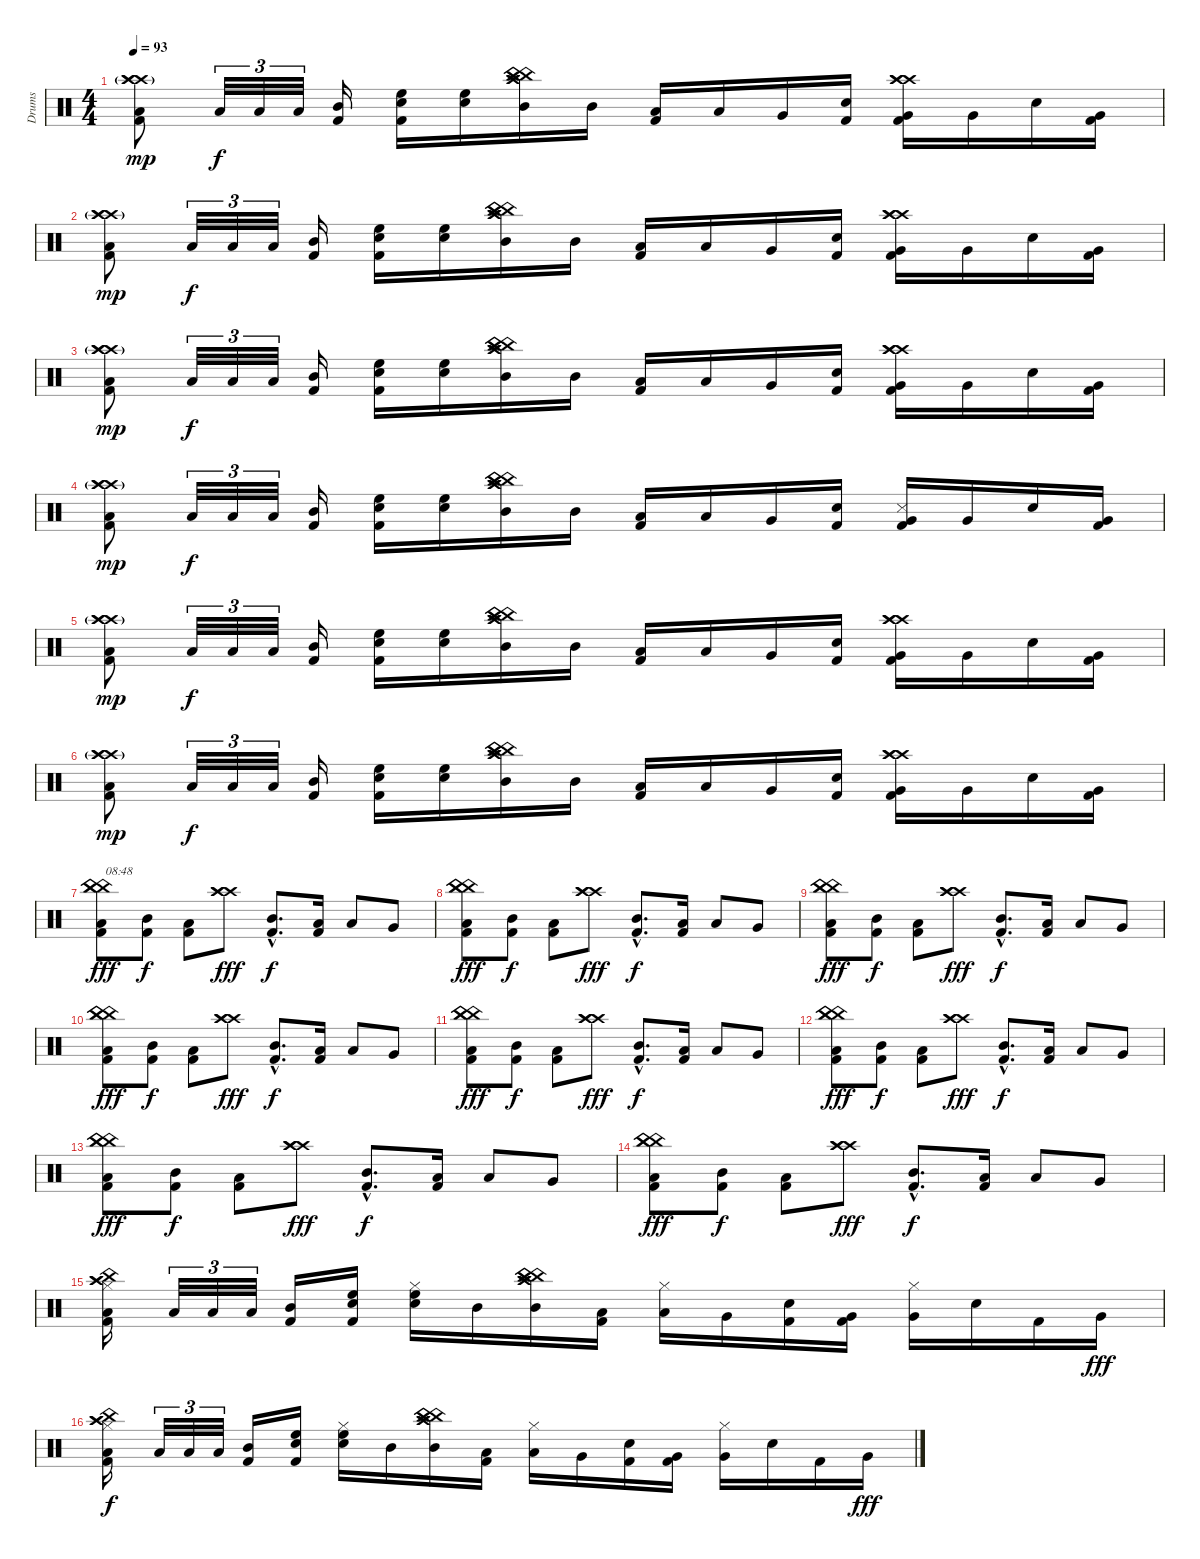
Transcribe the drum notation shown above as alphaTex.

\track ("Drums" "Drums") {instrument percussion}
\staff {score}
\articulation defaults
\ts (4 4)
\tempo 93
\clef neutral
\ks c
("Crash high (hit)"{g} "Crash high (hit)"{g} "Crash high (hit)"{g} "Low Floor Tom (hit)" "Kick (hit) 2").8{dy mp} "Low Floor Tom (hit)".32{tu (3 2) dy f} "Low Floor Tom (hit)".32{tu (3 2)} "Low Floor Tom (hit)".32{tu (3 2)} ("Mid Tom (hit)" "Kick (hit) 2").16 ("High Floor Tom (hit)" "Snare (hit) 2" "Kick (hit) 2").16 ("High Floor Tom (hit)" "Snare (hit) 2").16 ("China (hit)" "Mid Tom (hit)" "China (hit)" "China (hit)" "Crash high (hit)" "Crash high (hit)").16 "Mid Tom (hit)".16 ("Low Tom (hit)" "Kick (hit) 2").16 "Low Floor Tom (hit)".16 "Very Low Tom (hit)".16 ("Snare (hit) 2" "Kick (hit) 2").16 ("Crash high (hit)" "Crash high (hit)" "Crash high (hit)" "Very Low Tom (hit)" "Kick (hit) 2").16 "Very Low Tom (hit)".16 "Snare (hit) 2".16 ("Very Low Tom (hit)" "Kick (hit) 2").16 |
("Crash high (hit)"{g} "Crash high (hit)"{g} "Crash high (hit)"{g} "Low Floor Tom (hit)" "Kick (hit) 2").8{dy mp} "Low Floor Tom (hit)".32{tu (3 2) dy f} "Low Floor Tom (hit)".32{tu (3 2)} "Low Floor Tom (hit)".32{tu (3 2)} ("Mid Tom (hit)" "Kick (hit) 2").16 ("High Floor Tom (hit)" "Snare (hit) 2" "Kick (hit) 2").16 ("High Floor Tom (hit)" "Snare (hit) 2").16 ("China (hit)" "Mid Tom (hit)" "China (hit)" "China (hit)" "Crash high (hit)" "Crash high (hit)").16 "Mid Tom (hit)".16 ("Low Tom (hit)" "Kick (hit) 2").16 "Low Floor Tom (hit)".16 "Very Low Tom (hit)".16 ("Snare (hit) 2" "Kick (hit) 2").16 ("Crash high (hit)" "Crash high (hit)" "Crash high (hit)" "Very Low Tom (hit)" "Kick (hit) 2").16 "Very Low Tom (hit)".16 "Snare (hit) 2".16 ("Very Low Tom (hit)" "Kick (hit) 2").16 |
("Crash high (hit)"{g} "Crash high (hit)"{g} "Crash high (hit)"{g} "Low Floor Tom (hit)" "Kick (hit) 2").8{dy mp} "Low Floor Tom (hit)".32{tu (3 2) dy f} "Low Floor Tom (hit)".32{tu (3 2)} "Low Floor Tom (hit)".32{tu (3 2)} ("Mid Tom (hit)" "Kick (hit) 2").16 ("High Floor Tom (hit)" "Snare (hit) 2" "Kick (hit) 2").16 ("High Floor Tom (hit)" "Snare (hit) 2").16 ("China (hit)" "Mid Tom (hit)" "China (hit)" "China (hit)" "Crash high (hit)" "Crash high (hit)").16 "Mid Tom (hit)".16 ("Low Tom (hit)" "Kick (hit) 2").16 "Low Floor Tom (hit)".16 "Very Low Tom (hit)".16 ("Snare (hit) 2" "Kick (hit) 2").16 ("Crash high (hit)" "Crash high (hit)" "Crash high (hit)" "Very Low Tom (hit)" "Kick (hit) 2").16 "Very Low Tom (hit)".16 "Snare (hit) 2".16 ("Very Low Tom (hit)" "Kick (hit) 2").16 |
("Crash high (hit)"{g} "Crash high (hit)"{g} "Crash high (hit)"{g} "Low Floor Tom (hit)" "Kick (hit) 2").8{dy mp} "Low Floor Tom (hit)".32{tu (3 2) dy f} "Low Floor Tom (hit)".32{tu (3 2)} "Low Floor Tom (hit)".32{tu (3 2)} ("Mid Tom (hit)" "Kick (hit) 2").16 ("High Floor Tom (hit)" "Snare (hit) 2" "Kick (hit) 2").16 ("High Floor Tom (hit)" "Snare (hit) 2").16 ("China (hit)" "Mid Tom (hit)" "China (hit)" "China (hit)" "Crash high (hit)" "Crash high (hit)").16 "Mid Tom (hit)".16 ("Low Tom (hit)" "Kick (hit) 2").16 "Low Floor Tom (hit)".16 "Very Low Tom (hit)".16 ("Snare (hit) 2" "Kick (hit) 2").16 ("Snare (side stick) 3" "Very Low Tom (hit)" "Kick (hit) 2").16 "Very Low Tom (hit)".16 "Snare (hit) 2".16 ("Very Low Tom (hit)" "Kick (hit) 2").16 |
("Crash high (hit)"{g} "Crash high (hit)"{g} "Crash high (hit)"{g} "Low Floor Tom (hit)" "Kick (hit) 2").8{dy mp} "Low Floor Tom (hit)".32{tu (3 2) dy f} "Low Floor Tom (hit)".32{tu (3 2)} "Low Floor Tom (hit)".32{tu (3 2)} ("Mid Tom (hit)" "Kick (hit) 2").16 ("High Floor Tom (hit)" "Snare (hit) 2" "Kick (hit) 2").16 ("High Floor Tom (hit)" "Snare (hit) 2").16 ("China (hit)" "Mid Tom (hit)" "China (hit)" "China (hit)" "Crash high (hit)" "Crash high (hit)").16 "Mid Tom (hit)".16 ("Low Tom (hit)" "Kick (hit) 2").16 "Low Floor Tom (hit)".16 "Very Low Tom (hit)".16 ("Snare (hit) 2" "Kick (hit) 2").16 ("Crash high (hit)" "Crash high (hit)" "Crash high (hit)" "Very Low Tom (hit)" "Kick (hit) 2").16 "Very Low Tom (hit)".16 "Snare (hit) 2".16 ("Very Low Tom (hit)" "Kick (hit) 2").16 |
("Crash high (hit)"{g} "Crash high (hit)"{g} "Crash high (hit)"{g} "Low Floor Tom (hit)" "Kick (hit) 2").8{dy mp} "Low Floor Tom (hit)".32{tu (3 2) dy f} "Low Floor Tom (hit)".32{tu (3 2)} "Low Floor Tom (hit)".32{tu (3 2)} ("Mid Tom (hit)" "Kick (hit) 2").16 ("High Floor Tom (hit)" "Snare (hit) 2" "Kick (hit) 2").16 ("High Floor Tom (hit)" "Snare (hit) 2").16 ("China (hit)" "Mid Tom (hit)" "China (hit)" "China (hit)" "Crash high (hit)" "Crash high (hit)").16 "Mid Tom (hit)".16 ("Low Tom (hit)" "Kick (hit) 2").16 "Low Floor Tom (hit)".16 "Very Low Tom (hit)".16 ("Snare (hit) 2" "Kick (hit) 2").16 ("Crash high (hit)" "Crash high (hit)" "Crash high (hit)" "Very Low Tom (hit)" "Kick (hit) 2").16 "Very Low Tom (hit)".16 "Snare (hit) 2".16 ("Very Low Tom (hit)" "Kick (hit) 2").16 |
("China (hit)" "China (hit)" "China (hit)" "Low Floor Tom (hit)" "Kick (hit) 2").8{txt "08:48" dy fff} ("Mid Tom (hit)" "Kick (hit) 2").8{dy f} ("Low Tom (hit)" "Kick (hit) 2").8 ("Crash high (hit)" "Crash high (hit)" "Crash high (hit)").8{dy fff} ("Mid Tom (hit)"{hac} "Kick (hit) 2"{hac}).8{d dy f} ("Low Tom (hit)" "Kick (hit) 2").16 "Low Floor Tom (hit)".8 "Very Low Tom (hit)".8 |
("China (hit)" "China (hit)" "China (hit)" "Low Floor Tom (hit)" "Kick (hit) 2").8{dy fff} ("Mid Tom (hit)" "Kick (hit) 2").8{dy f} ("Low Tom (hit)" "Kick (hit) 2").8 ("Crash high (hit)" "Crash high (hit)" "Crash high (hit)").8{dy fff} ("Mid Tom (hit)"{hac} "Kick (hit) 2"{hac}).8{d dy f} ("Low Tom (hit)" "Kick (hit) 2").16 "Low Floor Tom (hit)".8 "Very Low Tom (hit)".8 |
("China (hit)" "China (hit)" "China (hit)" "Low Floor Tom (hit)" "Kick (hit) 2").8{dy fff} ("Mid Tom (hit)" "Kick (hit) 2").8{dy f} ("Low Tom (hit)" "Kick (hit) 2").8 ("Crash high (hit)" "Crash high (hit)" "Crash high (hit)").8{dy fff} ("Mid Tom (hit)"{hac} "Kick (hit) 2"{hac}).8{d dy f} ("Low Tom (hit)" "Kick (hit) 2").16 "Low Floor Tom (hit)".8 "Very Low Tom (hit)".8 |
("China (hit)" "China (hit)" "China (hit)" "Low Floor Tom (hit)" "Kick (hit) 2").8{dy fff} ("Mid Tom (hit)" "Kick (hit) 2").8{dy f} ("Low Tom (hit)" "Kick (hit) 2").8 ("Crash high (hit)" "Crash high (hit)" "Crash high (hit)").8{dy fff} ("Mid Tom (hit)"{hac} "Kick (hit) 2"{hac}).8{d dy f} ("Low Tom (hit)" "Kick (hit) 2").16 "Low Floor Tom (hit)".8 "Very Low Tom (hit)".8 |
("China (hit)" "China (hit)" "China (hit)" "Low Floor Tom (hit)" "Kick (hit) 2").8{dy fff} ("Mid Tom (hit)" "Kick (hit) 2").8{dy f} ("Low Tom (hit)" "Kick (hit) 2").8 ("Crash high (hit)" "Crash high (hit)" "Crash high (hit)").8{dy fff} ("Mid Tom (hit)"{hac} "Kick (hit) 2"{hac}).8{d dy f} ("Low Tom (hit)" "Kick (hit) 2").16 "Low Floor Tom (hit)".8 "Very Low Tom (hit)".8 |
("China (hit)" "China (hit)" "China (hit)" "Low Floor Tom (hit)" "Kick (hit) 2").8{dy fff} ("Mid Tom (hit)" "Kick (hit) 2").8{dy f} ("Low Tom (hit)" "Kick (hit) 2").8 ("Crash high (hit)" "Crash high (hit)" "Crash high (hit)").8{dy fff} ("Mid Tom (hit)"{hac} "Kick (hit) 2"{hac}).8{d dy f} ("Low Tom (hit)" "Kick (hit) 2").16 "Low Floor Tom (hit)".8 "Very Low Tom (hit)".8 |
("China (hit)" "China (hit)" "China (hit)" "Low Floor Tom (hit)" "Kick (hit) 2").8{dy fff} ("Mid Tom (hit)" "Kick (hit) 2").8{dy f} ("Low Tom (hit)" "Kick (hit) 2").8 ("Crash high (hit)" "Crash high (hit)" "Crash high (hit)").8{dy fff} ("Mid Tom (hit)"{hac} "Kick (hit) 2"{hac}).8{d dy f} ("Low Tom (hit)" "Kick (hit) 2").16 "Low Floor Tom (hit)".8 "Very Low Tom (hit)".8 |
("China (hit)" "China (hit)" "China (hit)" "Low Floor Tom (hit)" "Kick (hit) 2").8{dy fff} ("Mid Tom (hit)" "Kick (hit) 2").8{dy f} ("Low Tom (hit)" "Kick (hit) 2").8 ("Crash high (hit)" "Crash high (hit)" "Crash high (hit)").8{dy fff} ("Mid Tom (hit)"{hac} "Kick (hit) 2"{hac}).8{d dy f} ("Low Tom (hit)" "Kick (hit) 2").16 "Low Floor Tom (hit)".8 "Very Low Tom (hit)".8 |
("Hi-Hat (closed)" "China (hit)" "Low Floor Tom (hit)" "Crash high (hit)" "Crash high (hit)" "Kick (hit) 2").16 "Low Floor Tom (hit)".32{tu (3 2)} "Low Floor Tom (hit)".32{tu (3 2)} "Low Floor Tom (hit)".32{tu (3 2)} ("Mid Tom (hit)" "Kick (hit) 2").16 ("High Floor Tom (hit)" "Snare (hit) 2" "Kick (hit) 2").16 ("High Floor Tom (hit)" "Hi-Hat (closed)" "Snare (hit) 2").16 "Mid Tom (hit)".16 ("China (hit)" "Mid Tom (hit)" "China (hit)" "China (hit)" "Crash high (hit)" "Crash high (hit)").16 ("Low Tom (hit)" "Kick (hit) 2").16 ("Hi-Hat (closed)" "Low Floor Tom (hit)").16 "Very Low Tom (hit)".16 ("Snare (hit) 2" "Kick (hit) 2").16 ("Very Low Tom (hit)" "Kick (hit) 2").16 ("Hi-Hat (closed)" "Very Low Tom (hit)").16 "Snare (hit) 2".16 "Kick (hit) 2".16 "Very Low Tom (hit)".16{dy fff} |
("Hi-Hat (closed)" "China (hit)" "Low Floor Tom (hit)" "Crash high (hit)" "Crash high (hit)" "Kick (hit) 2").16{dy f} "Low Floor Tom (hit)".32{tu (3 2)} "Low Floor Tom (hit)".32{tu (3 2)} "Low Floor Tom (hit)".32{tu (3 2)} ("Mid Tom (hit)" "Kick (hit) 2").16 ("High Floor Tom (hit)" "Snare (hit) 2" "Kick (hit) 2").16 ("High Floor Tom (hit)" "Hi-Hat (closed)" "Snare (hit) 2").16 "Mid Tom (hit)".16 ("China (hit)" "Mid Tom (hit)" "China (hit)" "China (hit)" "Crash high (hit)" "Crash high (hit)").16 ("Low Tom (hit)" "Kick (hit) 2").16 ("Hi-Hat (closed)" "Low Floor Tom (hit)").16 "Very Low Tom (hit)".16 ("Snare (hit) 2" "Kick (hit) 2").16 ("Very Low Tom (hit)" "Kick (hit) 2").16 ("Hi-Hat (closed)" "Very Low Tom (hit)").16 "Snare (hit) 2".16 "Kick (hit) 2".16 "Very Low Tom (hit)".16{dy fff}
